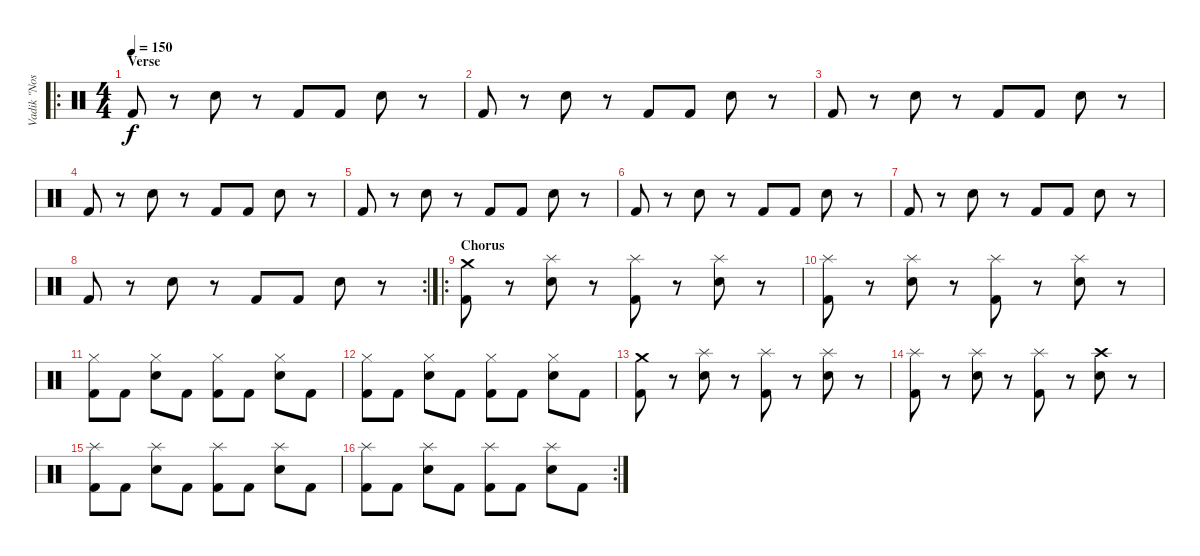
\track ("Vadik \"Nos\"" "Vadik \"Nos") {instrument percussion}
\staff {score}
\articulation defaults
\ro
\ts (4 4)
\section ("" "Verse")
\tempo 150
\clef neutral
\ks c "Kick (hit) 2".8{dy f}
r.8 "Electric Snare (hit)".8 r.8 "Kick (hit) 2".8 "Kick (hit) 2".8 "Electric Snare (hit)".8 r.8 |
"Kick (hit) 2".8 r.8 "Electric Snare (hit)".8 r.8 "Kick (hit) 2".8 "Kick (hit) 2".8 "Electric Snare (hit)".8 r.8 |
"Kick (hit) 2".8 r.8 "Electric Snare (hit)".8 r.8 "Kick (hit) 2".8 "Kick (hit) 2".8 "Electric Snare (hit)".8 r.8 |
"Kick (hit) 2".8 r.8 "Electric Snare (hit)".8 r.8 "Kick (hit) 2".8 "Kick (hit) 2".8 "Electric Snare (hit)".8 r.8 |
"Kick (hit) 2".8 r.8 "Electric Snare (hit)".8 r.8 "Kick (hit) 2".8 "Kick (hit) 2".8 "Electric Snare (hit)".8 r.8 |
"Kick (hit) 2".8 r.8 "Electric Snare (hit)".8 r.8 "Kick (hit) 2".8 "Kick (hit) 2".8 "Electric Snare (hit)".8 r.8 |
"Kick (hit) 2".8 r.8 "Electric Snare (hit)".8 r.8 "Kick (hit) 2".8 "Kick (hit) 2".8 "Electric Snare (hit)".8 r.8 |
\rc 2 "Kick (hit) 2".8
r.8 "Electric Snare (hit)".8 r.8 "Kick (hit) 2".8 "Kick (hit) 2".8 "Electric Snare (hit)".8 r.8 |
\ro
\section ("" "Chorus")
("Kick (hit) 2" "Crash medium (hit)").8 r.8 ("Electric Snare (hit)" "Splash (hit)").8 r.8 ("Kick (hit) 2" "Splash (hit)").8 r.8 ("Electric Snare (hit)" "Splash (hit)").8 r.8 |
("Kick (hit) 2" "Splash (hit)").8 r.8 ("Electric Snare (hit)" "Splash (hit)").8 r.8 ("Kick (hit) 2" "Splash (hit)").8 r.8 ("Electric Snare (hit)" "Splash (hit)").8 r.8 |
("Kick (hit) 2" "Hi-Hat (closed)").8 "Kick (hit) 2".8 ("Electric Snare (hit)" "Hi-Hat (closed)").8 "Kick (hit) 2".8 ("Kick (hit) 2" "Hi-Hat (closed)").8 "Kick (hit) 2".8 ("Electric Snare (hit)" "Hi-Hat (closed)").8 "Kick (hit) 2".8 |
("Kick (hit) 2" "Hi-Hat (closed)").8 "Kick (hit) 2".8 ("Electric Snare (hit)" "Hi-Hat (closed)").8 "Kick (hit) 2".8 ("Kick (hit) 2" "Hi-Hat (closed)").8 "Kick (hit) 2".8 ("Electric Snare (hit)" "Hi-Hat (closed)").8 "Kick (hit) 2".8 |
("Kick (hit) 2" "Crash medium (hit)").8 r.8 ("Electric Snare (hit)" "Splash (hit)").8 r.8 ("Kick (hit) 2" "Splash (hit)").8 r.8 ("Electric Snare (hit)" "Splash (hit)").8 r.8 |
("Kick (hit) 2" "Splash (hit)").8 r.8 ("Electric Snare (hit)" "Splash (hit)").8 r.8 ("Kick (hit) 2" "Splash (hit)").8 r.8 ("Electric Snare (hit)" "Crash high (hit)").8 r.8 |
("Kick (hit) 2" "Splash (hit)").8 "Kick (hit) 2".8 ("Electric Snare (hit)" "Splash (hit)").8 "Kick (hit) 2".8 ("Kick (hit) 2" "Splash (hit)").8 "Kick (hit) 2".8 ("Electric Snare (hit)" "Splash (hit)").8 "Kick (hit) 2".8 |
\rc 2
("Kick (hit) 2" "Splash (hit)").8 "Kick (hit) 2".8 ("Electric Snare (hit)" "Splash (hit)").8 "Kick (hit) 2".8 ("Kick (hit) 2" "Splash (hit)").8 "Kick (hit) 2".8 ("Electric Snare (hit)" "Splash (hit)").8 "Kick (hit) 2".8
